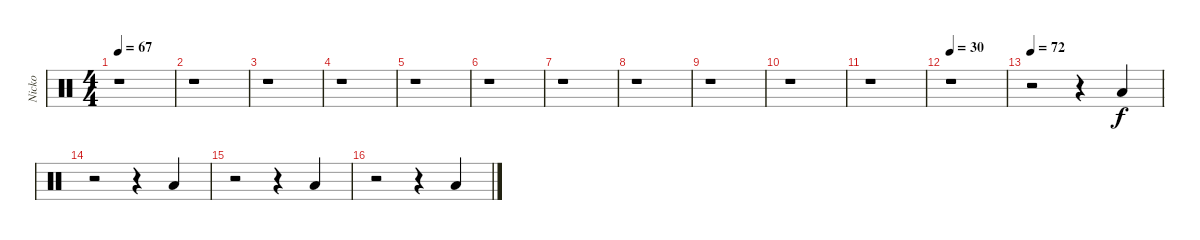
\track ("Nicko" "Nicko") {instrument percussion}
\staff {score}
\articulation defaults
\ts (4 4)
\tempo 67
\clef neutral
\ks c
r.1{dy f} |
r.1 |
r.1 |
r.1 |
r.1 |
r.1 |
r.1 |
r.1 |
r.1 |
r.1 |
r.1 |
\tempo 30
r.1 |
\tempo 72
r.2 r.4 "Low Floor Tom (hit)".4 |
r.2 r.4 "Low Floor Tom (hit)".4 |
r.2 r.4 "Low Floor Tom (hit)".4 |
r.2 r.4 "Low Floor Tom (hit)".4
